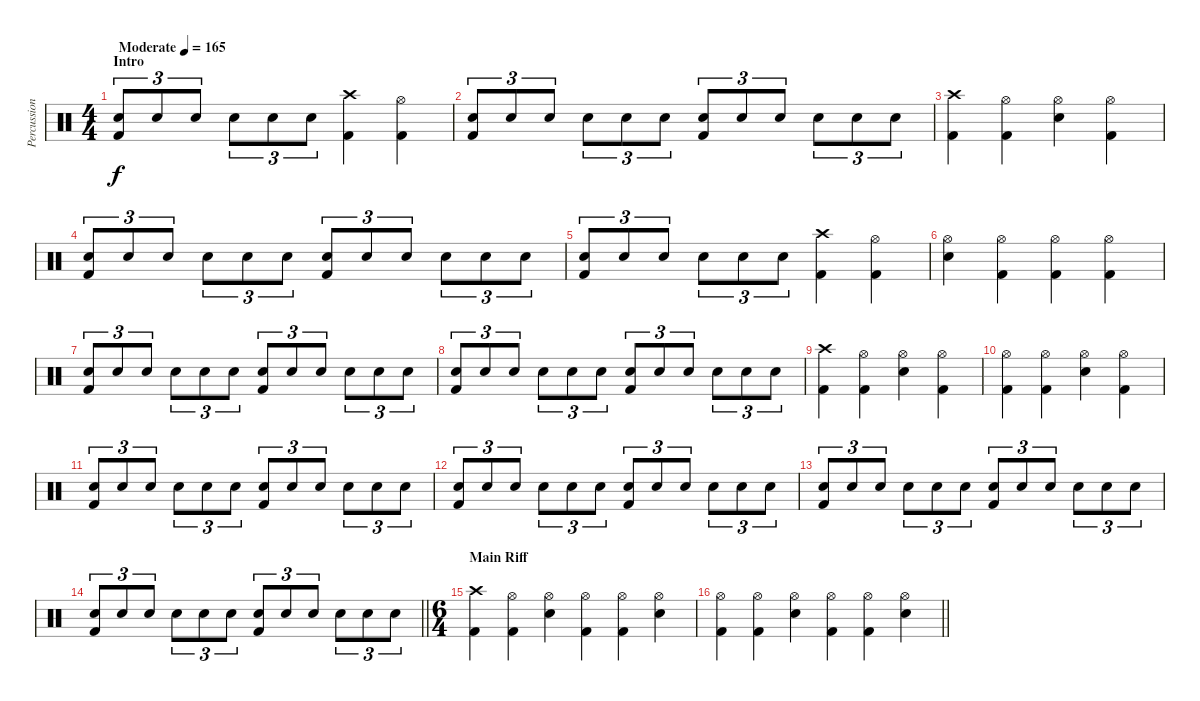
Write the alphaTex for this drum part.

\track ("Percussion" "Percussion") {instrument percussion}
\staff {score}
\articulation defaults
\ts (4 4)
\section ("" "Intro")
\tempo (165 "Moderate")
\clef neutral
\ks c
("Electric Snare (hit)" "Kick (hit) 2").8{tu (3 2) dy f} "Electric Snare (hit)".8{tu (3 2)} "Electric Snare (hit)".8{tu (3 2)} "Electric Snare (hit)".8{tu (3 2)} "Electric Snare (hit)".8{tu (3 2)} "Electric Snare (hit)".8{tu (3 2)} ("Crash high (hit)" "Kick (hit) 2").4 ("Hi-Hat (open)" "Kick (hit) 2").4 |
("Electric Snare (hit)" "Kick (hit) 2").8{tu (3 2)} "Electric Snare (hit)".8{tu (3 2)} "Electric Snare (hit)".8{tu (3 2)} "Electric Snare (hit)".8{tu (3 2)} "Electric Snare (hit)".8{tu (3 2)} "Electric Snare (hit)".8{tu (3 2)} ("Electric Snare (hit)" "Kick (hit) 2").8{tu (3 2)} "Electric Snare (hit)".8{tu (3 2)} "Electric Snare (hit)".8{tu (3 2)} "Electric Snare (hit)".8{tu (3 2)} "Electric Snare (hit)".8{tu (3 2)} "Electric Snare (hit)".8{tu (3 2)} |
("Crash high (hit)" "Kick (hit) 2").4 ("Hi-Hat (open)" "Kick (hit) 2").4 ("Hi-Hat (open)" "Electric Snare (hit)").4 ("Hi-Hat (open)" "Kick (hit) 2").4 |
("Electric Snare (hit)" "Kick (hit) 2").8{tu (3 2)} "Electric Snare (hit)".8{tu (3 2)} "Electric Snare (hit)".8{tu (3 2)} "Electric Snare (hit)".8{tu (3 2)} "Electric Snare (hit)".8{tu (3 2)} "Electric Snare (hit)".8{tu (3 2)} ("Electric Snare (hit)" "Kick (hit) 2").8{tu (3 2)} "Electric Snare (hit)".8{tu (3 2)} "Electric Snare (hit)".8{tu (3 2)} "Electric Snare (hit)".8{tu (3 2)} "Electric Snare (hit)".8{tu (3 2)} "Electric Snare (hit)".8{tu (3 2)} |
("Electric Snare (hit)" "Kick (hit) 2").8{tu (3 2)} "Electric Snare (hit)".8{tu (3 2)} "Electric Snare (hit)".8{tu (3 2)} "Electric Snare (hit)".8{tu (3 2)} "Electric Snare (hit)".8{tu (3 2)} "Electric Snare (hit)".8{tu (3 2)} ("Crash high (hit)" "Kick (hit) 2").4 ("Hi-Hat (open)" "Kick (hit) 2").4 |
("Hi-Hat (open)" "Electric Snare (hit)").4 ("Hi-Hat (open)" "Kick (hit) 2").4 ("Hi-Hat (open)" "Kick (hit) 2").4 ("Hi-Hat (open)" "Kick (hit) 2").4 |
("Electric Snare (hit)" "Kick (hit) 2").8{tu (3 2)} "Electric Snare (hit)".8{tu (3 2)} "Electric Snare (hit)".8{tu (3 2)} "Electric Snare (hit)".8{tu (3 2)} "Electric Snare (hit)".8{tu (3 2)} "Electric Snare (hit)".8{tu (3 2)} ("Electric Snare (hit)" "Kick (hit) 2").8{tu (3 2)} "Electric Snare (hit)".8{tu (3 2)} "Electric Snare (hit)".8{tu (3 2)} "Electric Snare (hit)".8{tu (3 2)} "Electric Snare (hit)".8{tu (3 2)} "Electric Snare (hit)".8{tu (3 2)} |
("Electric Snare (hit)" "Kick (hit) 2").8{tu (3 2)} "Electric Snare (hit)".8{tu (3 2)} "Electric Snare (hit)".8{tu (3 2)} "Electric Snare (hit)".8{tu (3 2)} "Electric Snare (hit)".8{tu (3 2)} "Electric Snare (hit)".8{tu (3 2)} ("Electric Snare (hit)" "Kick (hit) 2").8{tu (3 2)} "Electric Snare (hit)".8{tu (3 2)} "Electric Snare (hit)".8{tu (3 2)} "Electric Snare (hit)".8{tu (3 2)} "Electric Snare (hit)".8{tu (3 2)} "Electric Snare (hit)".8{tu (3 2)} |
("Crash high (hit)" "Kick (hit) 2").4 ("Hi-Hat (open)" "Kick (hit) 2").4 ("Hi-Hat (open)" "Electric Snare (hit)").4 ("Hi-Hat (open)" "Kick (hit) 2").4 |
("Hi-Hat (open)" "Kick (hit) 2").4 ("Hi-Hat (open)" "Kick (hit) 2").4 ("Hi-Hat (open)" "Electric Snare (hit)").4 ("Hi-Hat (open)" "Kick (hit) 2").4 |
("Electric Snare (hit)" "Kick (hit) 2").8{tu (3 2)} "Electric Snare (hit)".8{tu (3 2)} "Electric Snare (hit)".8{tu (3 2)} "Electric Snare (hit)".8{tu (3 2)} "Electric Snare (hit)".8{tu (3 2)} "Electric Snare (hit)".8{tu (3 2)} ("Electric Snare (hit)" "Kick (hit) 2").8{tu (3 2)} "Electric Snare (hit)".8{tu (3 2)} "Electric Snare (hit)".8{tu (3 2)} "Electric Snare (hit)".8{tu (3 2)} "Electric Snare (hit)".8{tu (3 2)} "Electric Snare (hit)".8{tu (3 2)} |
("Electric Snare (hit)" "Kick (hit) 2").8{tu (3 2)} "Electric Snare (hit)".8{tu (3 2)} "Electric Snare (hit)".8{tu (3 2)} "Electric Snare (hit)".8{tu (3 2)} "Electric Snare (hit)".8{tu (3 2)} "Electric Snare (hit)".8{tu (3 2)} ("Electric Snare (hit)" "Kick (hit) 2").8{tu (3 2)} "Electric Snare (hit)".8{tu (3 2)} "Electric Snare (hit)".8{tu (3 2)} "Electric Snare (hit)".8{tu (3 2)} "Electric Snare (hit)".8{tu (3 2)} "Electric Snare (hit)".8{tu (3 2)} |
("Electric Snare (hit)" "Kick (hit) 2").8{tu (3 2)} "Electric Snare (hit)".8{tu (3 2)} "Electric Snare (hit)".8{tu (3 2)} "Electric Snare (hit)".8{tu (3 2)} "Electric Snare (hit)".8{tu (3 2)} "Electric Snare (hit)".8{tu (3 2)} ("Electric Snare (hit)" "Kick (hit) 2").8{tu (3 2)} "Electric Snare (hit)".8{tu (3 2)} "Electric Snare (hit)".8{tu (3 2)} "Electric Snare (hit)".8{tu (3 2)} "Electric Snare (hit)".8{tu (3 2)} "Electric Snare (hit)".8{tu (3 2)} |
\barLineRight lightlight
("Electric Snare (hit)" "Kick (hit) 2").8{tu (3 2)} "Electric Snare (hit)".8{tu (3 2)} "Electric Snare (hit)".8{tu (3 2)} "Electric Snare (hit)".8{tu (3 2)} "Electric Snare (hit)".8{tu (3 2)} "Electric Snare (hit)".8{tu (3 2)} ("Electric Snare (hit)" "Kick (hit) 2").8{tu (3 2)} "Electric Snare (hit)".8{tu (3 2)} "Electric Snare (hit)".8{tu (3 2)} "Electric Snare (hit)".8{tu (3 2)} "Electric Snare (hit)".8{tu (3 2)} "Electric Snare (hit)".8{tu (3 2)} |
\ts (6 4)
\section ("" "Main Riff")
("Crash high (hit)" "Kick (hit) 2").4 ("Hi-Hat (open)" "Kick (hit) 2").4 ("Hi-Hat (open)" "Electric Snare (hit)").4 ("Hi-Hat (open)" "Kick (hit) 2").4 ("Hi-Hat (open)" "Kick (hit) 2").4 ("Hi-Hat (open)" "Electric Snare (hit)").4 |
\barLineRight lightlight
("Hi-Hat (open)" "Kick (hit) 2").4 ("Hi-Hat (open)" "Kick (hit) 2").4 ("Hi-Hat (open)" "Electric Snare (hit)").4 ("Hi-Hat (open)" "Kick (hit) 2").4 ("Hi-Hat (open)" "Kick (hit) 2").4 ("Hi-Hat (open)" "Electric Snare (hit)").4
